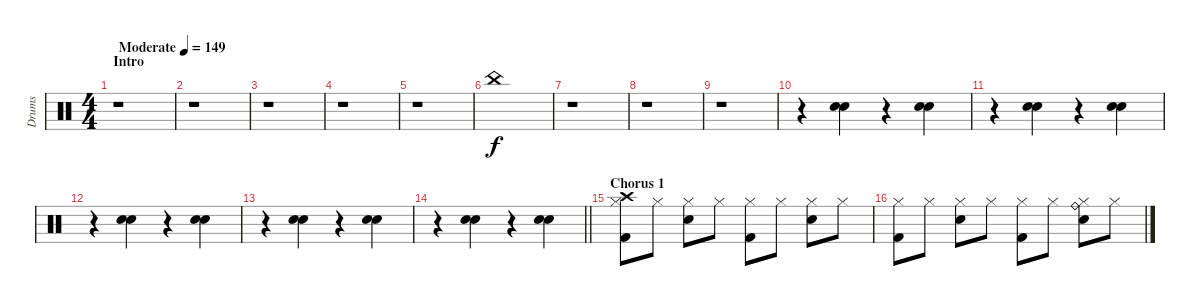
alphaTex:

\track ("Drums" "Drums") {instrument percussion}
\staff {score}
\articulation defaults
\ts (4 4)
\section ("" "Intro")
\tempo (149 "Moderate")
\clef neutral
\ks c
r.1{dy f} |
r.1 |
r.1 |
r.1 |
r.1 |
"China (hit)".1 |
r.1 |
r.1 |
r.1 |
r.4 ("Hand Clap (hit)" "Hand Clap (hit)").4 r.4 ("Hand Clap (hit)" "Hand Clap (hit)").4 |
r.4 ("Hand Clap (hit)" "Hand Clap (hit)").4 r.4 ("Hand Clap (hit)" "Hand Clap (hit)").4 |
r.4 ("Hand Clap (hit)" "Hand Clap (hit)").4 r.4 ("Hand Clap (hit)" "Hand Clap (hit)").4 |
r.4 ("Hand Clap (hit)" "Hand Clap (hit)").4 r.4 ("Hand Clap (hit)" "Hand Clap (hit)").4 |
\barLineRight lightlight
r.4 ("Hand Clap (hit)" "Hand Clap (hit)").4 r.4 ("Hand Clap (hit)" "Electric Snare (hit)").4 |
\section ("" "Chorus 1")
("Hi-Hat (closed)" "Crash high (hit)" "Kick (hit) 2").8 "Hi-Hat (closed)".8 ("Hi-Hat (closed)" "Electric Snare (hit)").8 "Hi-Hat (closed)".8 ("Hi-Hat (closed)" "Kick (hit) 2").8 "Hi-Hat (closed)".8 ("Hi-Hat (closed)" "Electric Snare (hit)").8 "Hi-Hat (closed)".8 |
("Hi-Hat (closed)" "Kick (hit) 2").8 "Hi-Hat (closed)".8 ("Hi-Hat (closed)" "Electric Snare (hit)").8 "Hi-Hat (closed)".8 ("Hi-Hat (closed)" "Kick (hit) 2").8 "Hi-Hat (closed)".8 ("Ride (bell)" "Hi-Hat (closed)" "Electric Snare (hit)").8 "Hi-Hat (closed)".8
